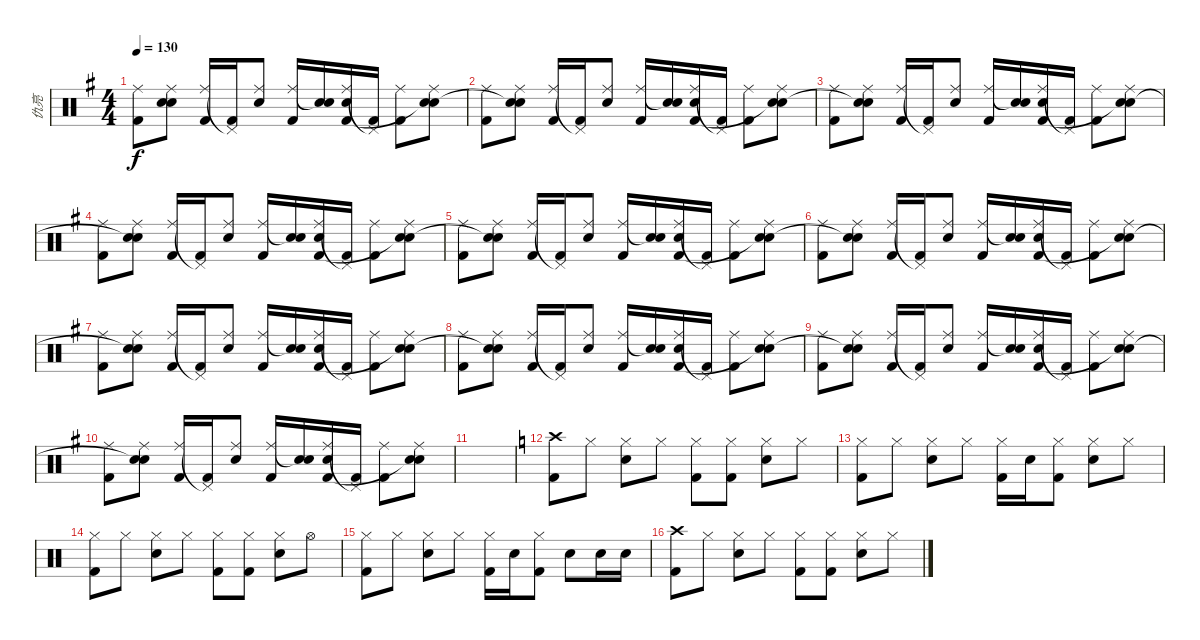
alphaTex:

\track ("仇亮" "仇亮") {instrument percussion}
\staff {score}
\articulation defaults
\ts (4 4)
\tempo 130
\clef neutral
\ks g
("Ride (middle)" "Kick (hit) 2").8{dy f} ("Ride (middle)" "Snare (hit) 2" "Snare (hit)"{t}).8 ("Ride (middle)" "Kick (hit) 2").16 ("Pedal Hi-Hat (hit)"{t} "Kick (hit) 2").16 ("Ride (middle)" "Snare (hit) 2").8 ("Ride (middle)" "Kick (hit) 2").16 ("Snare (hit)"{t} "Snare (hit)").16 ("Ride (middle)" "Snare (hit) 2" "Kick (hit) 2").16 ("Pedal Hi-Hat (hit)"{t} "Kick (hit) 2").16 ("Ride (middle)" "Kick (hit) 2").8 ("Ride (middle)" "Snare (hit) 2" "Snare (hit)"{t}).8 |
("Ride (middle)" "Kick (hit) 2").8 ("Ride (middle)" "Snare (hit) 2" "Snare (hit)"{t}).8 ("Ride (middle)" "Kick (hit) 2").16 ("Pedal Hi-Hat (hit)"{t} "Kick (hit) 2").16 ("Ride (middle)" "Snare (hit) 2").8 ("Ride (middle)" "Kick (hit) 2").16 ("Snare (hit)"{t} "Snare (hit)").16 ("Ride (middle)" "Snare (hit) 2" "Kick (hit) 2").16 ("Pedal Hi-Hat (hit)"{t} "Kick (hit) 2").16 ("Ride (middle)" "Kick (hit) 2").8 ("Ride (middle)" "Snare (hit) 2" "Snare (hit)"{t}).8 |
("Ride (middle)" "Kick (hit) 2").8 ("Ride (middle)" "Snare (hit) 2" "Snare (hit)"{t}).8 ("Ride (middle)" "Kick (hit) 2").16 ("Pedal Hi-Hat (hit)"{t} "Kick (hit) 2").16 ("Ride (middle)" "Snare (hit) 2").8 ("Ride (middle)" "Kick (hit) 2").16 ("Snare (hit)"{t} "Snare (hit)").16 ("Ride (middle)" "Snare (hit) 2" "Kick (hit) 2").16 ("Pedal Hi-Hat (hit)"{t} "Kick (hit) 2").16 ("Ride (middle)" "Kick (hit) 2").8 ("Ride (middle)" "Snare (hit) 2" "Snare (hit)"{t}).8 |
("Ride (middle)" "Kick (hit) 2").8 ("Ride (middle)" "Snare (hit) 2" "Snare (hit)"{t}).8 ("Ride (middle)" "Kick (hit) 2").16 ("Pedal Hi-Hat (hit)"{t} "Kick (hit) 2").16 ("Ride (middle)" "Snare (hit) 2").8 ("Ride (middle)" "Kick (hit) 2").16 ("Snare (hit)"{t} "Snare (hit)").16 ("Ride (middle)" "Snare (hit) 2" "Kick (hit) 2").16 ("Pedal Hi-Hat (hit)"{t} "Kick (hit) 2").16 ("Ride (middle)" "Kick (hit) 2").8 ("Ride (middle)" "Snare (hit) 2" "Snare (hit)"{t}).8 |
("Ride (middle)" "Kick (hit) 2").8 ("Ride (middle)" "Snare (hit) 2" "Snare (hit)"{t}).8 ("Ride (middle)" "Kick (hit) 2").16 ("Pedal Hi-Hat (hit)"{t} "Kick (hit) 2").16 ("Ride (middle)" "Snare (hit) 2").8 ("Ride (middle)" "Kick (hit) 2").16 ("Snare (hit)"{t} "Snare (hit)").16 ("Ride (middle)" "Snare (hit) 2" "Kick (hit) 2").16 ("Pedal Hi-Hat (hit)"{t} "Kick (hit) 2").16 ("Ride (middle)" "Kick (hit) 2").8 ("Ride (middle)" "Snare (hit) 2" "Snare (hit)"{t}).8 |
("Ride (middle)" "Kick (hit) 2").8 ("Ride (middle)" "Snare (hit) 2" "Snare (hit)"{t}).8 ("Ride (middle)" "Kick (hit) 2").16 ("Pedal Hi-Hat (hit)"{t} "Kick (hit) 2").16 ("Ride (middle)" "Snare (hit) 2").8 ("Ride (middle)" "Kick (hit) 2").16 ("Snare (hit)"{t} "Snare (hit)").16 ("Ride (middle)" "Snare (hit) 2" "Kick (hit) 2").16 ("Pedal Hi-Hat (hit)"{t} "Kick (hit) 2").16 ("Ride (middle)" "Kick (hit) 2").8 ("Ride (middle)" "Snare (hit) 2" "Snare (hit)"{t}).8 |
("Ride (middle)" "Kick (hit) 2").8 ("Ride (middle)" "Snare (hit) 2" "Snare (hit)"{t}).8 ("Ride (middle)" "Kick (hit) 2").16 ("Pedal Hi-Hat (hit)"{t} "Kick (hit) 2").16 ("Ride (middle)" "Snare (hit) 2").8 ("Ride (middle)" "Kick (hit) 2").16 ("Snare (hit)"{t} "Snare (hit)").16 ("Ride (middle)" "Snare (hit) 2" "Kick (hit) 2").16 ("Pedal Hi-Hat (hit)"{t} "Kick (hit) 2").16 ("Ride (middle)" "Kick (hit) 2").8 ("Ride (middle)" "Snare (hit) 2" "Snare (hit)"{t}).8 |
("Ride (middle)" "Kick (hit) 2").8 ("Ride (middle)" "Snare (hit) 2" "Snare (hit)"{t}).8 ("Ride (middle)" "Kick (hit) 2").16 ("Pedal Hi-Hat (hit)"{t} "Kick (hit) 2").16 ("Ride (middle)" "Snare (hit) 2").8 ("Ride (middle)" "Kick (hit) 2").16 ("Snare (hit)"{t} "Snare (hit)").16 ("Ride (middle)" "Snare (hit) 2" "Kick (hit) 2").16 ("Pedal Hi-Hat (hit)"{t} "Kick (hit) 2").16 ("Ride (middle)" "Kick (hit) 2").8 ("Ride (middle)" "Snare (hit) 2" "Snare (hit)"{t}).8 |
("Ride (middle)" "Kick (hit) 2").8 ("Ride (middle)" "Snare (hit) 2" "Snare (hit)"{t}).8 ("Ride (middle)" "Kick (hit) 2").16 ("Pedal Hi-Hat (hit)"{t} "Kick (hit) 2").16 ("Ride (middle)" "Snare (hit) 2").8 ("Ride (middle)" "Kick (hit) 2").16 ("Snare (hit)"{t} "Snare (hit)").16 ("Ride (middle)" "Snare (hit) 2" "Kick (hit) 2").16 ("Pedal Hi-Hat (hit)"{t} "Kick (hit) 2").16 ("Ride (middle)" "Kick (hit) 2").8 ("Ride (middle)" "Snare (hit) 2" "Snare (hit)"{t}).8 |
("Ride (middle)" "Kick (hit) 2").8 ("Ride (middle)" "Snare (hit) 2" "Snare (hit)"{t}).8 ("Ride (middle)" "Kick (hit) 2").16 ("Pedal Hi-Hat (hit)"{t} "Kick (hit) 2").16 ("Ride (middle)" "Snare (hit) 2").8 ("Ride (middle)" "Kick (hit) 2").16 ("Snare (hit)"{t} "Snare (hit)").16 ("Ride (middle)" "Snare (hit) 2" "Kick (hit) 2").16 ("Pedal Hi-Hat (hit)"{t} "Kick (hit) 2").16 ("Ride (middle)" "Kick (hit) 2").8 ("Ride (middle)" "Snare (hit) 2" "Snare (hit)"{t}).8 |
|
\ks c
("Crash high (hit)" "Kick (hit) 2").8 "Hi-Hat (closed)".8 ("Hi-Hat (closed)" "Electric Snare (hit)").8 "Hi-Hat (closed)".8 ("Hi-Hat (closed)" "Kick (hit) 2").8 ("Hi-Hat (closed)" "Kick (hit) 2").8 ("Hi-Hat (closed)" "Electric Snare (hit)").8 "Hi-Hat (closed)".8 |
("Hi-Hat (closed)" "Kick (hit) 2").8 "Hi-Hat (closed)".8 ("Hi-Hat (closed)" "Electric Snare (hit)").8 "Hi-Hat (closed)".8 ("Hi-Hat (closed)" "Kick (hit) 2").16 "Electric Snare (hit)".16 ("Hi-Hat (closed)" "Kick (hit) 2").8 ("Hi-Hat (closed)" "Electric Snare (hit)").8 "Hi-Hat (closed)".8 |
("Hi-Hat (closed)" "Kick (hit) 2").8 "Hi-Hat (closed)".8 ("Hi-Hat (closed)" "Electric Snare (hit)").8 "Hi-Hat (closed)".8 ("Hi-Hat (closed)" "Kick (hit) 2").8 ("Hi-Hat (closed)" "Kick (hit) 2").8 ("Hi-Hat (closed)" "Electric Snare (hit)").8 "Hi-Hat (open)".8 |
("Hi-Hat (closed)" "Kick (hit) 2").8 "Hi-Hat (closed)".8 ("Hi-Hat (closed)" "Electric Snare (hit)").8 "Hi-Hat (closed)".8 ("Hi-Hat (closed)" "Kick (hit) 2").16 "Electric Snare (hit)".16 ("Hi-Hat (closed)" "Kick (hit) 2").8 "Electric Snare (hit)".8 "Electric Snare (hit)".16 "Electric Snare (hit)".16 |
("Crash high (hit)" "Kick (hit) 2").8 "Hi-Hat (closed)".8 ("Hi-Hat (closed)" "Electric Snare (hit)").8 "Hi-Hat (closed)".8 ("Hi-Hat (closed)" "Kick (hit) 2").8 ("Hi-Hat (closed)" "Kick (hit) 2").8 ("Hi-Hat (closed)" "Electric Snare (hit)").8 "Hi-Hat (closed)".8
